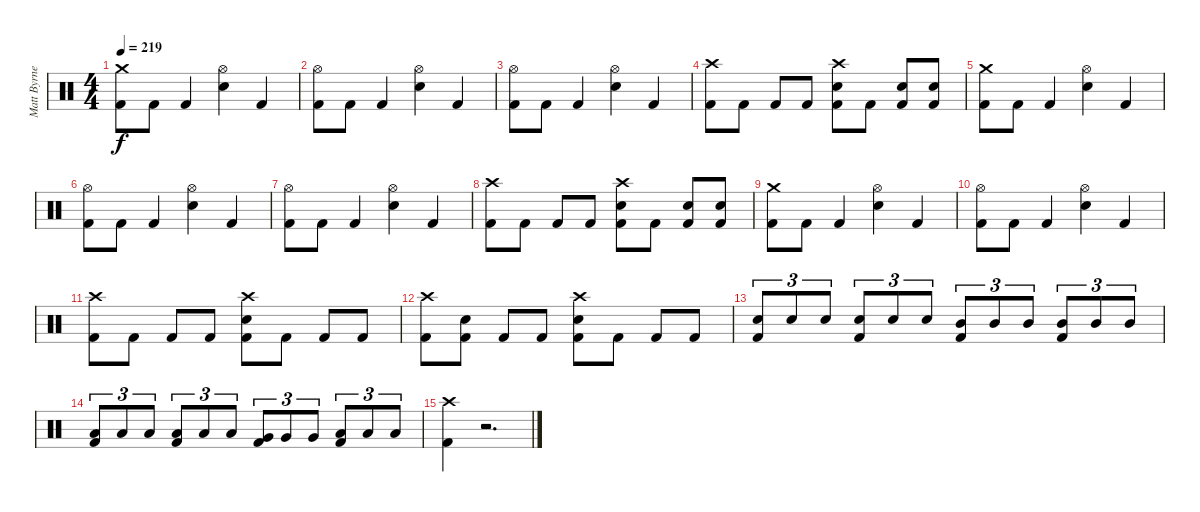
\track ("Matt Byrne (Drums)" "Matt Byrne") {instrument percussion}
\staff {score}
\articulation defaults
\ts (4 4)
\tempo 219
\clef neutral
\ks c
("Crash medium (hit)" "Kick (hit) 2").8{dy f} "Kick (hit) 2".8 "Kick (hit) 2".4 ("Hi-Hat (open)" "Snare (hit) 2").4 "Kick (hit) 2".4 |
("Hi-Hat (open)" "Kick (hit) 2").8 "Kick (hit) 2".8 "Kick (hit) 2".4 ("Hi-Hat (open)" "Snare (hit) 2").4 "Kick (hit) 2".4 |
("Hi-Hat (open)" "Kick (hit) 2").8 "Kick (hit) 2".8 "Kick (hit) 2".4 ("Hi-Hat (open)" "Snare (hit) 2").4 "Kick (hit) 2".4 |
("Crash high (hit)" "Kick (hit) 2").8 "Kick (hit) 2".8 "Kick (hit) 2".8 "Kick (hit) 2".8 ("Crash high (hit)" "Snare (hit) 2" "Kick (hit) 2").8 "Kick (hit) 2".8 ("Snare (hit) 2" "Kick (hit) 2").8 ("Snare (hit) 2" "Kick (hit) 2").8 |
("Crash medium (hit)" "Kick (hit) 2").8 "Kick (hit) 2".8 "Kick (hit) 2".4 ("Hi-Hat (open)" "Snare (hit) 2").4 "Kick (hit) 2".4 |
("Hi-Hat (open)" "Kick (hit) 2").8 "Kick (hit) 2".8 "Kick (hit) 2".4 ("Hi-Hat (open)" "Snare (hit) 2").4 "Kick (hit) 2".4 |
("Hi-Hat (open)" "Kick (hit) 2").8 "Kick (hit) 2".8 "Kick (hit) 2".4 ("Hi-Hat (open)" "Snare (hit) 2").4 "Kick (hit) 2".4 |
("Crash high (hit)" "Kick (hit) 2").8 "Kick (hit) 2".8 "Kick (hit) 2".8 "Kick (hit) 2".8 ("Crash high (hit)" "Snare (hit) 2" "Kick (hit) 2").8 "Kick (hit) 2".8 ("Snare (hit) 2" "Kick (hit) 2").8 ("Snare (hit) 2" "Kick (hit) 2").8 |
("Crash medium (hit)" "Kick (hit) 2").8 "Kick (hit) 2".8 "Kick (hit) 2".4 ("Hi-Hat (open)" "Snare (hit) 2").4 "Kick (hit) 2".4 |
("Hi-Hat (open)" "Kick (hit) 2").8 "Kick (hit) 2".8 "Kick (hit) 2".4 ("Hi-Hat (open)" "Snare (hit) 2").4 "Kick (hit) 2".4 |
("Crash high (hit)" "Kick (hit) 2").8 "Kick (hit) 2".8 "Kick (hit) 2".8 "Kick (hit) 2".8 ("Crash high (hit)" "Snare (hit) 2" "Kick (hit) 2").8 "Kick (hit) 2".8 "Kick (hit) 2".8 "Kick (hit) 2".8 |
("Crash high (hit)" "Kick (hit) 2").8 ("Snare (hit) 2" "Kick (hit) 2").8 "Kick (hit) 2".8 "Kick (hit) 2".8 ("Snare (hit) 2" "Crash high (hit)" "Kick (hit) 2").8 "Kick (hit) 2".8 "Kick (hit) 2".8 "Kick (hit) 2".8 |
("Snare (hit) 2" "Kick (hit) 2").8{tu (3 2)} "Snare (hit) 2".8{tu (3 2)} "Snare (hit) 2".8{tu (3 2)} ("Snare (hit) 2" "Kick (hit) 2").8{tu (3 2)} "Snare (hit) 2".8{tu (3 2)} "Snare (hit) 2".8{tu (3 2)} ("Mid Tom (hit)" "Kick (hit) 2").8{tu (3 2)} "Mid Tom (hit)".8{tu (3 2)} "Mid Tom (hit)".8{tu (3 2)} ("Mid Tom (hit)" "Kick (hit) 2").8{tu (3 2)} "Mid Tom (hit)".8{tu (3 2)} "Mid Tom (hit)".8{tu (3 2)} |
("Low Tom (hit)" "Kick (hit) 2").8{tu (3 2)} "Low Tom (hit)".8{tu (3 2)} "Low Tom (hit)".8{tu (3 2)} ("Low Tom (hit)" "Kick (hit) 2").8{tu (3 2)} "Low Tom (hit)".8{tu (3 2)} "Low Tom (hit)".8{tu (3 2)} ("Very Low Tom (hit)" "Kick (hit) 2").8{tu (3 2)} "Very Low Tom (hit)".8{tu (3 2)} "Very Low Tom (hit)".8{tu (3 2)} ("Low Floor Tom (hit)" "Kick (hit) 2").8{tu (3 2)} "Low Floor Tom (hit)".8{tu (3 2)} "Low Floor Tom (hit)".8{tu (3 2)} |
("Crash high (hit)" "Kick (hit) 2").4 r.2{d volume 0}
